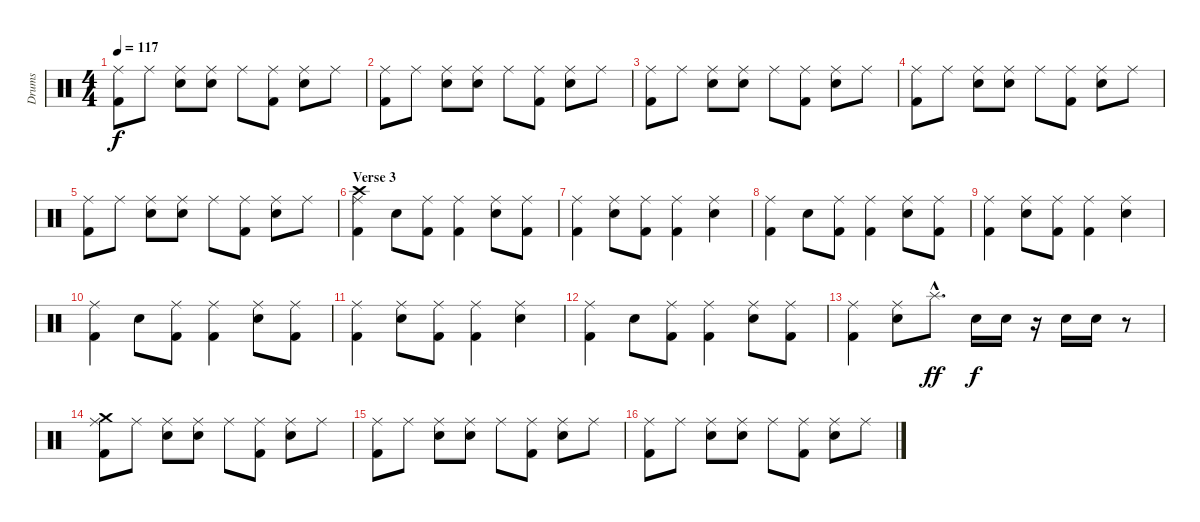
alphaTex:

\track ("Drums" "Drums") {instrument percussion}
\staff {score}
\articulation defaults
\ts (4 4)
\tempo 117
\clef neutral
\ks c
("Ride (middle)" "Kick (hit) 2").8{dy f} "Ride (middle)".8 ("Ride (middle)" "Electric Snare (hit)").8 ("Ride (middle)" "Electric Snare (hit)").8 "Ride (middle)".8 ("Ride (middle)" "Kick (hit) 2").8 ("Ride (middle)" "Electric Snare (hit)").8 "Ride (middle)".8 |
("Ride (middle)" "Kick (hit) 2").8 "Ride (middle)".8 ("Ride (middle)" "Electric Snare (hit)").8 ("Ride (middle)" "Electric Snare (hit)").8 "Ride (middle)".8 ("Ride (middle)" "Kick (hit) 2").8 ("Ride (middle)" "Electric Snare (hit)").8 "Ride (middle)".8 |
("Ride (middle)" "Kick (hit) 2").8 "Ride (middle)".8 ("Ride (middle)" "Electric Snare (hit)").8 ("Ride (middle)" "Electric Snare (hit)").8 "Ride (middle)".8 ("Ride (middle)" "Kick (hit) 2").8 ("Ride (middle)" "Electric Snare (hit)").8 "Ride (middle)".8 |
("Ride (middle)" "Kick (hit) 2").8 "Ride (middle)".8 ("Ride (middle)" "Electric Snare (hit)").8 ("Ride (middle)" "Electric Snare (hit)").8 "Ride (middle)".8 ("Ride (middle)" "Kick (hit) 2").8 ("Ride (middle)" "Electric Snare (hit)").8 "Ride (middle)".8 |
("Ride (middle)" "Kick (hit) 2").8 "Ride (middle)".8 ("Ride (middle)" "Electric Snare (hit)").8 ("Ride (middle)" "Electric Snare (hit)").8 "Ride (middle)".8 ("Ride (middle)" "Kick (hit) 2").8 ("Ride (middle)" "Electric Snare (hit)").8 "Ride (middle)".8 |
\section ("" "Verse 3")
("Ride (middle)" "Crash high (hit)" "Kick (hit) 2").4 "Electric Snare (hit)".8 ("Ride (middle)" "Kick (hit) 2").8 ("Ride (middle)" "Kick (hit) 2").4 ("Ride (middle)" "Electric Snare (hit)").8 ("Ride (middle)" "Kick (hit) 2").8 |
("Ride (middle)" "Kick (hit) 2").4 ("Ride (middle)" "Electric Snare (hit)").8 ("Ride (middle)" "Kick (hit) 2").8 ("Ride (middle)" "Kick (hit) 2").4 ("Ride (middle)" "Electric Snare (hit)").4 |
("Ride (middle)" "Kick (hit) 2").4 "Electric Snare (hit)".8 ("Ride (middle)" "Kick (hit) 2").8 ("Ride (middle)" "Kick (hit) 2").4 ("Ride (middle)" "Electric Snare (hit)").8 ("Ride (middle)" "Kick (hit) 2").8 |
("Ride (middle)" "Kick (hit) 2").4 ("Ride (middle)" "Electric Snare (hit)").8 ("Ride (middle)" "Kick (hit) 2").8 ("Ride (middle)" "Kick (hit) 2").4 ("Ride (middle)" "Electric Snare (hit)").4 |
("Ride (middle)" "Kick (hit) 2").4 "Electric Snare (hit)".8 ("Ride (middle)" "Kick (hit) 2").8 ("Ride (middle)" "Kick (hit) 2").4 ("Ride (middle)" "Electric Snare (hit)").8 ("Ride (middle)" "Kick (hit) 2").8 |
("Ride (middle)" "Kick (hit) 2").4 ("Ride (middle)" "Electric Snare (hit)").8 ("Ride (middle)" "Kick (hit) 2").8 ("Ride (middle)" "Kick (hit) 2").4 ("Ride (middle)" "Electric Snare (hit)").4 |
("Ride (middle)" "Kick (hit) 2").4 "Electric Snare (hit)".8 ("Ride (middle)" "Kick (hit) 2").8 ("Ride (middle)" "Kick (hit) 2").4 ("Ride (middle)" "Electric Snare (hit)").8 ("Ride (middle)" "Kick (hit) 2").8 |
("Ride (middle)" "Kick (hit) 2").4 ("Ride (middle)" "Electric Snare (hit)").8 "Splash (hit)"{hac}.8{d dy ff} "Electric Snare (hit)".16{dy f} "Electric Snare (hit)".16 r.16 "Electric Snare (hit)".16 "Electric Snare (hit)".16 r.8 |
("Ride (middle)" "Crash medium (hit)" "Kick (hit) 2").8 "Ride (middle)".8 ("Ride (middle)" "Electric Snare (hit)").8 ("Ride (middle)" "Electric Snare (hit)").8 "Ride (middle)".8 ("Ride (middle)" "Kick (hit) 2").8 ("Ride (middle)" "Electric Snare (hit)").8 "Ride (middle)".8 |
("Ride (middle)" "Kick (hit) 2").8 "Ride (middle)".8 ("Ride (middle)" "Electric Snare (hit)").8 ("Ride (middle)" "Electric Snare (hit)").8 "Ride (middle)".8 ("Ride (middle)" "Kick (hit) 2").8 ("Ride (middle)" "Electric Snare (hit)").8 "Ride (middle)".8 |
("Ride (middle)" "Kick (hit) 2").8 "Ride (middle)".8 ("Ride (middle)" "Electric Snare (hit)").8 ("Ride (middle)" "Electric Snare (hit)").8 "Ride (middle)".8 ("Ride (middle)" "Kick (hit) 2").8 ("Ride (middle)" "Electric Snare (hit)").8 "Ride (middle)".8
